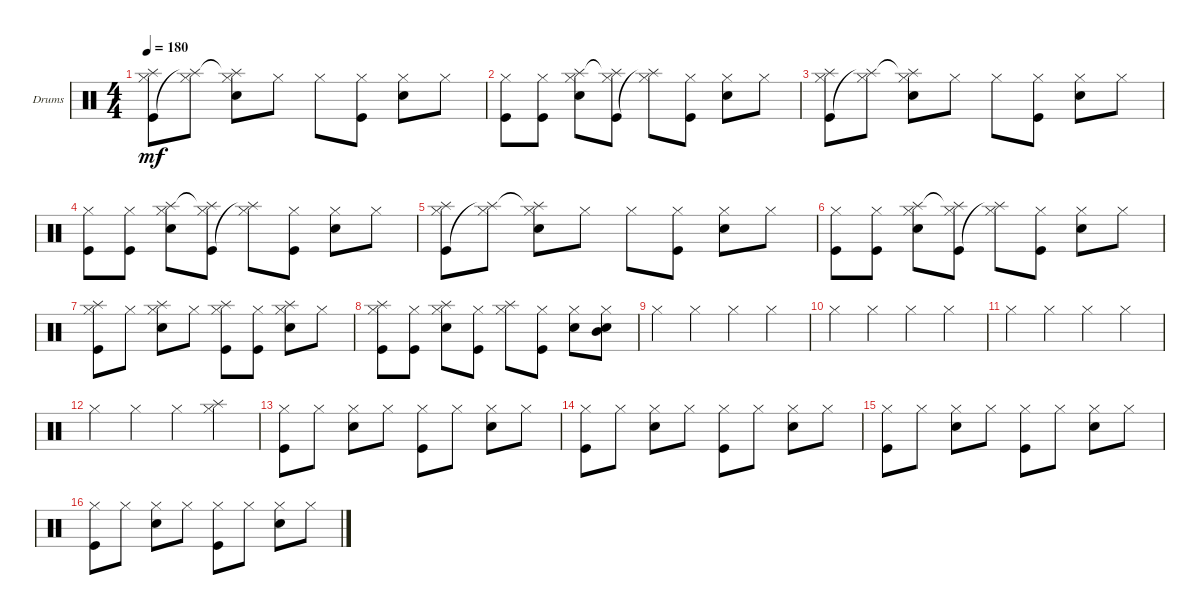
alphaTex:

\bracketExtendMode groupsimilarinstruments
\firstSystemTrackNameOrientation horizontal
\otherSystemsTrackNameOrientation horizontal
\track ("Drumkit" "Drums") {instrument percussion}
\staff {score}
\articulation defaults
\ts (4 4)
\tempo 180
\clef neutral
\ks c
("Hi-Hat (closed)" "Kick (hit)" "Splash (hit)").8{dy mf} ("Hi-Hat (closed)" "Splash (hit)"{t}).8 ("Hi-Hat (closed)" "Splash (hit)"{t} "Snare (hit) 2").8 "Hi-Hat (closed)".8 "Hi-Hat (closed)".8 ("Hi-Hat (closed)" "Kick (hit)").8 ("Hi-Hat (closed)" "Snare (hit) 2").8 "Hi-Hat (closed)".8 |
("Hi-Hat (closed)" "Kick (hit)").8 ("Hi-Hat (closed)" "Kick (hit)").8 ("Hi-Hat (closed)" "Snare (hit) 2" "Splash (hit)").8 ("Hi-Hat (closed)" "Kick (hit)" "Splash (hit)"{t}).8 ("Hi-Hat (closed)" "Splash (hit)"{t}).8 ("Hi-Hat (closed)" "Kick (hit)").8 ("Hi-Hat (closed)" "Snare (hit) 2").8 "Hi-Hat (closed)".8 |
("Hi-Hat (closed)" "Kick (hit)" "Splash (hit)").8 ("Hi-Hat (closed)" "Splash (hit)"{t}).8 ("Hi-Hat (closed)" "Splash (hit)"{t} "Snare (hit) 2").8 "Hi-Hat (closed)".8 "Hi-Hat (closed)".8 ("Hi-Hat (closed)" "Kick (hit)").8 ("Hi-Hat (closed)" "Snare (hit) 2").8 "Hi-Hat (closed)".8 |
("Hi-Hat (closed)" "Kick (hit)").8 ("Hi-Hat (closed)" "Kick (hit)").8 ("Hi-Hat (closed)" "Snare (hit) 2" "Splash (hit)").8 ("Hi-Hat (closed)" "Kick (hit)" "Splash (hit)"{t}).8 ("Hi-Hat (closed)" "Splash (hit)"{t}).8 ("Hi-Hat (closed)" "Kick (hit)").8 ("Hi-Hat (closed)" "Snare (hit) 2").8 "Hi-Hat (closed)".8 |
("Hi-Hat (closed)" "Kick (hit)" "Splash (hit)").8 ("Hi-Hat (closed)" "Splash (hit)"{t}).8 ("Hi-Hat (closed)" "Splash (hit)"{t} "Snare (hit) 2").8 "Hi-Hat (closed)".8 "Hi-Hat (closed)".8 ("Hi-Hat (closed)" "Kick (hit)").8 ("Hi-Hat (closed)" "Snare (hit) 2").8 "Hi-Hat (closed)".8 |
("Hi-Hat (closed)" "Kick (hit)").8 ("Hi-Hat (closed)" "Kick (hit)").8 ("Hi-Hat (closed)" "Snare (hit) 2" "Splash (hit)").8 ("Hi-Hat (closed)" "Kick (hit)" "Splash (hit)"{t}).8 ("Hi-Hat (closed)" "Splash (hit)"{t}).8 ("Hi-Hat (closed)" "Kick (hit)").8 ("Hi-Hat (closed)" "Snare (hit) 2").8 "Hi-Hat (closed)".8 |
("Hi-Hat (closed)" "Kick (hit)" "Splash (hit)").8 "Hi-Hat (closed)".8 ("Hi-Hat (closed)" "Snare (hit) 2" "Splash (hit)").8 "Hi-Hat (closed)".8 ("Hi-Hat (closed)" "Kick (hit)" "Splash (hit)").8 ("Hi-Hat (closed)" "Kick (hit)").8 ("Hi-Hat (closed)" "Snare (hit) 2" "Splash (hit)").8 "Hi-Hat (closed)".8 |
("Hi-Hat (closed)" "Kick (hit)" "Splash (hit)").8 ("Hi-Hat (closed)" "Kick (hit)").8 ("Hi-Hat (closed)" "Snare (hit) 2" "Splash (hit)").8 ("Hi-Hat (closed)" "Kick (hit)").8 ("Hi-Hat (closed)" "Splash (hit)").8 ("Hi-Hat (closed)" "Kick (hit)").8 ("Hi-Hat (closed)" "Snare (hit) 2").8 ("Hi-Hat (closed)" "Mid Tom (hit)" "Snare (hit) 2").8 |
"Hi-Hat (closed)".4 "Hi-Hat (closed)".4 "Hi-Hat (closed)".4 "Hi-Hat (closed)".4 |
"Hi-Hat (closed)".4 "Hi-Hat (closed)".4 "Hi-Hat (closed)".4 "Hi-Hat (closed)".4 |
"Hi-Hat (closed)".4 "Hi-Hat (closed)".4 "Hi-Hat (closed)".4 "Hi-Hat (closed)".4 |
"Hi-Hat (closed)".4 "Hi-Hat (closed)".4 "Hi-Hat (closed)".4 ("Hi-Hat (closed)" "Splash (hit)").4 |
("Hi-Hat (closed)" "Kick (hit)").8 "Hi-Hat (closed)".8 ("Hi-Hat (closed)" "Snare (hit) 2").8 "Hi-Hat (closed)".8 ("Hi-Hat (closed)" "Kick (hit)").8 "Hi-Hat (closed)".8 ("Hi-Hat (closed)" "Snare (hit) 2").8 "Hi-Hat (closed)".8 |
("Hi-Hat (closed)" "Kick (hit)").8 "Hi-Hat (closed)".8 ("Hi-Hat (closed)" "Snare (hit) 2").8 "Hi-Hat (closed)".8 ("Hi-Hat (closed)" "Kick (hit)").8 "Hi-Hat (closed)".8 ("Hi-Hat (closed)" "Snare (hit) 2").8 "Hi-Hat (closed)".8 |
("Hi-Hat (closed)" "Kick (hit)").8 "Hi-Hat (closed)".8 ("Hi-Hat (closed)" "Snare (hit) 2").8 "Hi-Hat (closed)".8 ("Hi-Hat (closed)" "Kick (hit)").8 "Hi-Hat (closed)".8 ("Hi-Hat (closed)" "Snare (hit) 2").8 "Hi-Hat (closed)".8 |
("Hi-Hat (closed)" "Kick (hit)").8 "Hi-Hat (closed)".8 ("Hi-Hat (closed)" "Snare (hit) 2").8 "Hi-Hat (closed)".8 ("Hi-Hat (closed)" "Kick (hit)").8 "Hi-Hat (closed)".8 ("Hi-Hat (closed)" "Snare (hit) 2").8 "Hi-Hat (closed)".8
